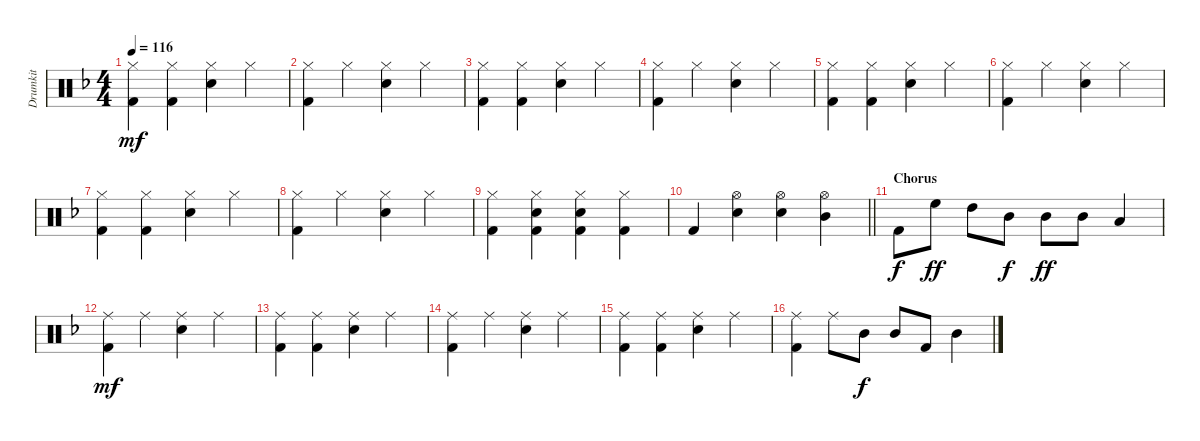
\track ("Drumkit" "Drumkit") {instrument percussion}
\staff {score}
\articulation defaults
\ts (4 4)
\tempo 116
\clef neutral
\ks dminor
("Hi-Hat (closed)" "Kick (hit) 2").4{dy mf} ("Hi-Hat (closed)" "Kick (hit) 2").4 ("Hi-Hat (closed)" "Snare (hit) 2").4 "Hi-Hat (closed)".4 |
("Hi-Hat (closed)" "Kick (hit) 2").4 "Hi-Hat (closed)".4 ("Hi-Hat (closed)" "Snare (hit) 2").4 "Hi-Hat (closed)".4 |
("Hi-Hat (closed)" "Kick (hit) 2").4 ("Hi-Hat (closed)" "Kick (hit) 2").4 ("Hi-Hat (closed)" "Snare (hit) 2").4 "Hi-Hat (closed)".4 |
("Hi-Hat (closed)" "Kick (hit) 2").4 "Hi-Hat (closed)".4 ("Hi-Hat (closed)" "Snare (hit) 2").4 "Hi-Hat (closed)".4 |
("Hi-Hat (closed)" "Kick (hit) 2").4 ("Hi-Hat (closed)" "Kick (hit) 2").4 ("Hi-Hat (closed)" "Snare (hit) 2").4 "Hi-Hat (closed)".4 |
("Hi-Hat (closed)" "Kick (hit) 2").4 "Hi-Hat (closed)".4 ("Hi-Hat (closed)" "Snare (hit) 2").4 "Hi-Hat (closed)".4 |
("Hi-Hat (closed)" "Kick (hit) 2").4 ("Hi-Hat (closed)" "Kick (hit) 2").4 ("Hi-Hat (closed)" "Snare (hit) 2").4 "Hi-Hat (closed)".4 |
("Hi-Hat (closed)" "Kick (hit) 2").4 "Hi-Hat (closed)".4 ("Hi-Hat (closed)" "Snare (hit) 2").4 "Hi-Hat (closed)".4 |
("Hi-Hat (closed)" "Kick (hit) 2").4 ("Hi-Hat (closed)" "Snare (hit) 2" "Kick (hit) 2").4 ("Hi-Hat (closed)" "Snare (hit) 2" "Kick (hit) 2").4 ("Hi-Hat (closed)" "Kick (hit) 2").4 |
\barLineRight lightlight "Kick (hit) 2".4
("Hi-Hat (open)" "Snare (hit) 2").4 ("Hi-Hat (open)" "Snare (hit) 2").4 ("Hi-Hat (open)" "Mid Tom (hit)").4 |
\section ("" "Chorus")
"Kick (hit) 2".8{dy f} "High Floor Tom (hit)".8{dy ff} "High Tom (hit)".8 "Mid Tom (hit)".8{dy f} "Mid Tom (hit)".8{dy ff} "Mid Tom (hit)".8 "Low Tom (hit)".4 |
("Ride (middle)" "Kick (hit) 2").4{dy mf} "Ride (middle)".4 ("Ride (middle)" "Snare (hit) 2").4 "Ride (middle)".4 |
("Ride (middle)" "Kick (hit) 2").4 ("Ride (middle)" "Kick (hit) 2").4 ("Ride (middle)" "Snare (hit) 2").4 "Ride (middle)".4 |
("Ride (middle)" "Kick (hit) 2").4 "Ride (middle)".4 ("Ride (middle)" "Snare (hit) 2").4 "Ride (middle)".4 |
("Ride (middle)" "Kick (hit) 2").4 ("Ride (middle)" "Kick (hit) 2").4 ("Ride (middle)" "Snare (hit) 2").4 "Ride (middle)".4 |
("Ride (middle)" "Kick (hit) 2").4 "Ride (middle)".8 "Mid Tom (hit)".8{dy f} "Mid Tom (hit)".8 "Kick (hit) 2".8 "Mid Tom (hit)".4
